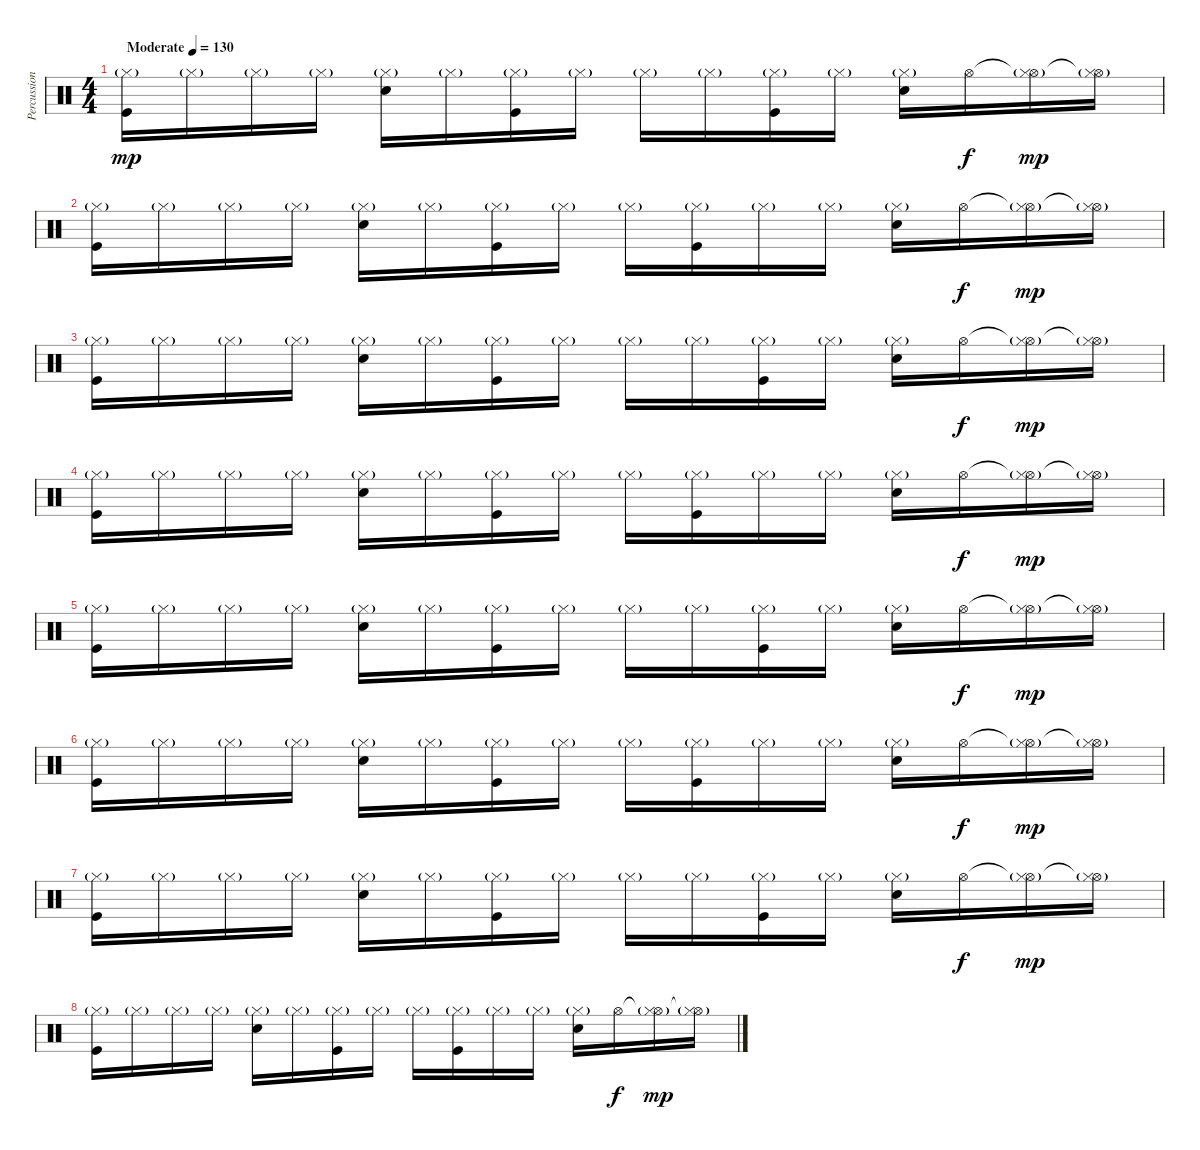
\track ("Percussion" "Percussion") {instrument percussion}
\staff {score}
\articulation defaults
\ts (4 4)
\tempo (130 "Moderate")
\clef neutral
\ks c
("Hi-Hat (closed)"{g} "Kick (hit)").16{dy mp} "Hi-Hat (closed)"{g}.16 "Hi-Hat (closed)"{g}.16 "Hi-Hat (closed)"{g}.16 ("Hi-Hat (closed)"{g} "Hand Clap (hit)").16 "Hi-Hat (closed)"{g}.16 ("Hi-Hat (closed)"{g} "Kick (hit)").16 "Hi-Hat (closed)"{g}.16 "Hi-Hat (closed)"{g}.16 "Hi-Hat (closed)"{g}.16 ("Hi-Hat (closed)"{g} "Kick (hit)").16 "Hi-Hat (closed)"{g}.16 ("Hi-Hat (closed)"{g} "Hand Clap (hit)").16 "Hi-Hat (open)".16{dy f} ("Hi-Hat (open)"{t} "Hi-Hat (closed)"{g}).16{dy mp} ("Hi-Hat (open)"{t} "Hi-Hat (closed)"{g}).16 |
("Hi-Hat (closed)"{g} "Kick (hit)").16 "Hi-Hat (closed)"{g}.16 "Hi-Hat (closed)"{g}.16 "Hi-Hat (closed)"{g}.16 ("Hi-Hat (closed)"{g} "Hand Clap (hit)").16 "Hi-Hat (closed)"{g}.16 ("Hi-Hat (closed)"{g} "Kick (hit)").16 "Hi-Hat (closed)"{g}.16 "Hi-Hat (closed)"{g}.16 ("Hi-Hat (closed)"{g} "Kick (hit)").16 "Hi-Hat (closed)"{g}.16 "Hi-Hat (closed)"{g}.16 ("Hi-Hat (closed)"{g} "Hand Clap (hit)").16 "Hi-Hat (open)".16{dy f} ("Hi-Hat (open)"{t} "Hi-Hat (closed)"{g}).16{dy mp} ("Hi-Hat (open)"{t} "Hi-Hat (closed)"{g}).16 |
("Hi-Hat (closed)"{g} "Kick (hit)").16 "Hi-Hat (closed)"{g}.16 "Hi-Hat (closed)"{g}.16 "Hi-Hat (closed)"{g}.16 ("Hi-Hat (closed)"{g} "Hand Clap (hit)").16 "Hi-Hat (closed)"{g}.16 ("Hi-Hat (closed)"{g} "Kick (hit)").16 "Hi-Hat (closed)"{g}.16 "Hi-Hat (closed)"{g}.16 "Hi-Hat (closed)"{g}.16 ("Hi-Hat (closed)"{g} "Kick (hit)").16 "Hi-Hat (closed)"{g}.16 ("Hi-Hat (closed)"{g} "Hand Clap (hit)").16 "Hi-Hat (open)".16{dy f} ("Hi-Hat (open)"{t} "Hi-Hat (closed)"{g}).16{dy mp} ("Hi-Hat (open)"{t} "Hi-Hat (closed)"{g}).16 |
("Hi-Hat (closed)"{g} "Kick (hit)").16 "Hi-Hat (closed)"{g}.16 "Hi-Hat (closed)"{g}.16 "Hi-Hat (closed)"{g}.16 ("Hi-Hat (closed)"{g} "Hand Clap (hit)").16 "Hi-Hat (closed)"{g}.16 ("Hi-Hat (closed)"{g} "Kick (hit)").16 "Hi-Hat (closed)"{g}.16 "Hi-Hat (closed)"{g}.16 ("Hi-Hat (closed)"{g} "Kick (hit)").16 "Hi-Hat (closed)"{g}.16 "Hi-Hat (closed)"{g}.16 ("Hi-Hat (closed)"{g} "Hand Clap (hit)").16 "Hi-Hat (open)".16{dy f} ("Hi-Hat (open)"{t} "Hi-Hat (closed)"{g}).16{dy mp} ("Hi-Hat (open)"{t} "Hi-Hat (closed)"{g}).16 |
("Hi-Hat (closed)"{g} "Kick (hit)").16 "Hi-Hat (closed)"{g}.16 "Hi-Hat (closed)"{g}.16 "Hi-Hat (closed)"{g}.16 ("Hi-Hat (closed)"{g} "Hand Clap (hit)").16 "Hi-Hat (closed)"{g}.16 ("Hi-Hat (closed)"{g} "Kick (hit)").16 "Hi-Hat (closed)"{g}.16 "Hi-Hat (closed)"{g}.16 "Hi-Hat (closed)"{g}.16 ("Hi-Hat (closed)"{g} "Kick (hit)").16 "Hi-Hat (closed)"{g}.16 ("Hi-Hat (closed)"{g} "Hand Clap (hit)").16 "Hi-Hat (open)".16{dy f} ("Hi-Hat (open)"{t} "Hi-Hat (closed)"{g}).16{dy mp} ("Hi-Hat (open)"{t} "Hi-Hat (closed)"{g}).16 |
("Hi-Hat (closed)"{g} "Kick (hit)").16 "Hi-Hat (closed)"{g}.16 "Hi-Hat (closed)"{g}.16 "Hi-Hat (closed)"{g}.16 ("Hi-Hat (closed)"{g} "Hand Clap (hit)").16 "Hi-Hat (closed)"{g}.16 ("Hi-Hat (closed)"{g} "Kick (hit)").16 "Hi-Hat (closed)"{g}.16 "Hi-Hat (closed)"{g}.16 ("Hi-Hat (closed)"{g} "Kick (hit)").16 "Hi-Hat (closed)"{g}.16 "Hi-Hat (closed)"{g}.16 ("Hi-Hat (closed)"{g} "Hand Clap (hit)").16 "Hi-Hat (open)".16{dy f} ("Hi-Hat (open)"{t} "Hi-Hat (closed)"{g}).16{dy mp} ("Hi-Hat (open)"{t} "Hi-Hat (closed)"{g}).16 |
("Hi-Hat (closed)"{g} "Kick (hit)").16 "Hi-Hat (closed)"{g}.16 "Hi-Hat (closed)"{g}.16 "Hi-Hat (closed)"{g}.16 ("Hi-Hat (closed)"{g} "Hand Clap (hit)").16 "Hi-Hat (closed)"{g}.16 ("Hi-Hat (closed)"{g} "Kick (hit)").16 "Hi-Hat (closed)"{g}.16 "Hi-Hat (closed)"{g}.16 "Hi-Hat (closed)"{g}.16 ("Hi-Hat (closed)"{g} "Kick (hit)").16 "Hi-Hat (closed)"{g}.16 ("Hi-Hat (closed)"{g} "Hand Clap (hit)").16 "Hi-Hat (open)".16{dy f} ("Hi-Hat (open)"{t} "Hi-Hat (closed)"{g}).16{dy mp} ("Hi-Hat (open)"{t} "Hi-Hat (closed)"{g}).16 |
("Hi-Hat (closed)"{g} "Kick (hit)").16 "Hi-Hat (closed)"{g}.16 "Hi-Hat (closed)"{g}.16 "Hi-Hat (closed)"{g}.16 ("Hi-Hat (closed)"{g} "Hand Clap (hit)").16 "Hi-Hat (closed)"{g}.16 ("Hi-Hat (closed)"{g} "Kick (hit)").16 "Hi-Hat (closed)"{g}.16 "Hi-Hat (closed)"{g}.16 ("Hi-Hat (closed)"{g} "Kick (hit)").16 "Hi-Hat (closed)"{g}.16 "Hi-Hat (closed)"{g}.16 ("Hi-Hat (closed)"{g} "Hand Clap (hit)").16 "Hi-Hat (open)".16{dy f} ("Hi-Hat (open)"{t} "Hi-Hat (closed)"{g}).16{dy mp} ("Hi-Hat (open)"{t} "Hi-Hat (closed)"{g}).16
